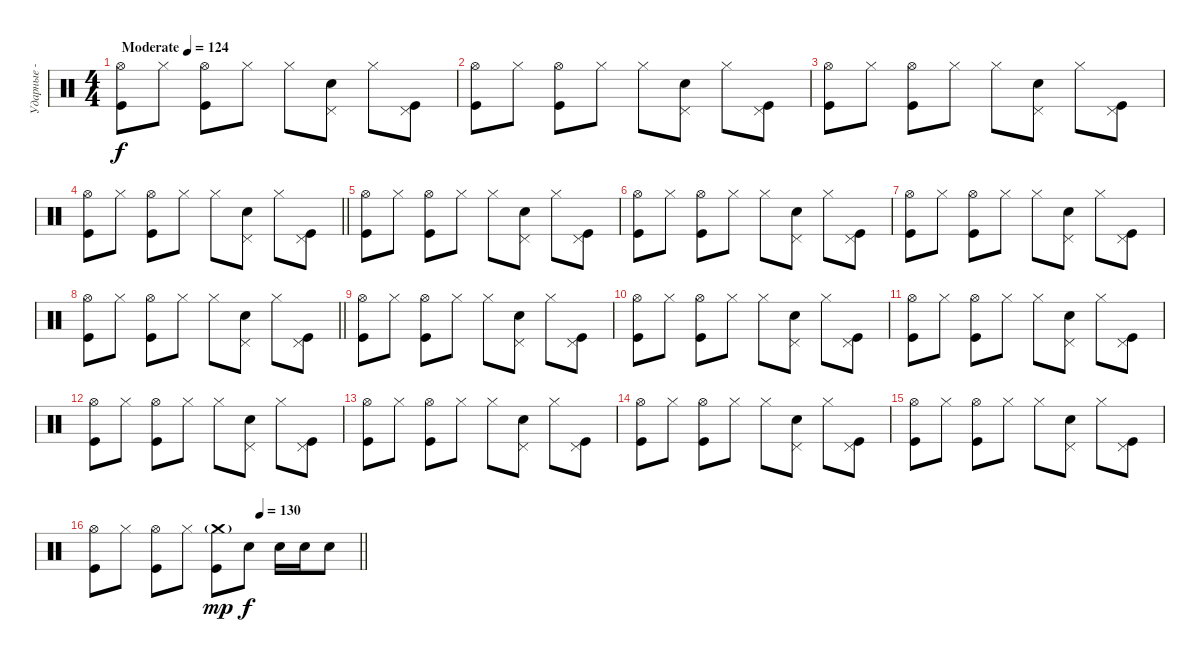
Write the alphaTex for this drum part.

\track ("Ударные - Джек Уайт" "Ударные - ") {instrument percussion}
\staff {score}
\articulation defaults
\ts (4 4)
\tempo (124 "Moderate")
\clef neutral
\ks c
("Hi-Hat (open)" "Kick (hit)").8{dy f} "Hi-Hat (closed)".8 ("Hi-Hat (open)" "Kick (hit)").8 "Hi-Hat (closed)".8 "Hi-Hat (closed)".8 ("Pedal Hi-Hat (hit)" "Electric Snare (hit)").8 "Hi-Hat (closed)".8 ("Pedal Hi-Hat (hit)" "Kick (hit)").8 |
("Hi-Hat (open)" "Kick (hit)").8 "Hi-Hat (closed)".8 ("Hi-Hat (open)" "Kick (hit)").8 "Hi-Hat (closed)".8 "Hi-Hat (closed)".8 ("Pedal Hi-Hat (hit)" "Electric Snare (hit)").8 "Hi-Hat (closed)".8 ("Pedal Hi-Hat (hit)" "Kick (hit)").8 |
("Hi-Hat (open)" "Kick (hit)").8 "Hi-Hat (closed)".8 ("Hi-Hat (open)" "Kick (hit)").8 "Hi-Hat (closed)".8 "Hi-Hat (closed)".8 ("Pedal Hi-Hat (hit)" "Electric Snare (hit)").8 "Hi-Hat (closed)".8 ("Pedal Hi-Hat (hit)" "Kick (hit)").8 |
\barLineRight lightlight
("Hi-Hat (open)" "Kick (hit)").8 "Hi-Hat (closed)".8 ("Hi-Hat (open)" "Kick (hit)").8 "Hi-Hat (closed)".8 "Hi-Hat (closed)".8 ("Pedal Hi-Hat (hit)" "Electric Snare (hit)").8 "Hi-Hat (closed)".8 ("Pedal Hi-Hat (hit)" "Kick (hit)").8 |
("Hi-Hat (open)" "Kick (hit)").8 "Hi-Hat (closed)".8 ("Hi-Hat (open)" "Kick (hit)").8 "Hi-Hat (closed)".8 "Hi-Hat (closed)".8 ("Pedal Hi-Hat (hit)" "Electric Snare (hit)").8 "Hi-Hat (closed)".8 ("Pedal Hi-Hat (hit)" "Kick (hit)").8 |
("Hi-Hat (open)" "Kick (hit)").8 "Hi-Hat (closed)".8 ("Hi-Hat (open)" "Kick (hit)").8 "Hi-Hat (closed)".8 "Hi-Hat (closed)".8 ("Pedal Hi-Hat (hit)" "Electric Snare (hit)").8 "Hi-Hat (closed)".8 ("Pedal Hi-Hat (hit)" "Kick (hit)").8 |
("Hi-Hat (open)" "Kick (hit)").8 "Hi-Hat (closed)".8 ("Hi-Hat (open)" "Kick (hit)").8 "Hi-Hat (closed)".8 "Hi-Hat (closed)".8 ("Pedal Hi-Hat (hit)" "Electric Snare (hit)").8 "Hi-Hat (closed)".8 ("Pedal Hi-Hat (hit)" "Kick (hit)").8 |
\barLineRight lightlight
("Hi-Hat (open)" "Kick (hit)").8 "Hi-Hat (closed)".8 ("Hi-Hat (open)" "Kick (hit)").8 "Hi-Hat (closed)".8 "Hi-Hat (closed)".8 ("Pedal Hi-Hat (hit)" "Electric Snare (hit)").8 "Hi-Hat (closed)".8 ("Pedal Hi-Hat (hit)" "Kick (hit)").8 |
("Hi-Hat (open)" "Kick (hit)").8 "Hi-Hat (closed)".8 ("Hi-Hat (open)" "Kick (hit)").8 "Hi-Hat (closed)".8 "Hi-Hat (closed)".8 ("Pedal Hi-Hat (hit)" "Electric Snare (hit)").8 "Hi-Hat (closed)".8 ("Pedal Hi-Hat (hit)" "Kick (hit)").8 |
("Hi-Hat (open)" "Kick (hit)").8 "Hi-Hat (closed)".8 ("Hi-Hat (open)" "Kick (hit)").8 "Hi-Hat (closed)".8 "Hi-Hat (closed)".8 ("Pedal Hi-Hat (hit)" "Electric Snare (hit)").8 "Hi-Hat (closed)".8 ("Pedal Hi-Hat (hit)" "Kick (hit)").8 |
("Hi-Hat (open)" "Kick (hit)").8 "Hi-Hat (closed)".8 ("Hi-Hat (open)" "Kick (hit)").8 "Hi-Hat (closed)".8 "Hi-Hat (closed)".8 ("Pedal Hi-Hat (hit)" "Electric Snare (hit)").8 "Hi-Hat (closed)".8 ("Pedal Hi-Hat (hit)" "Kick (hit)").8 |
("Hi-Hat (open)" "Kick (hit)").8 "Hi-Hat (closed)".8 ("Hi-Hat (open)" "Kick (hit)").8 "Hi-Hat (closed)".8 "Hi-Hat (closed)".8 ("Pedal Hi-Hat (hit)" "Electric Snare (hit)").8 "Hi-Hat (closed)".8 ("Pedal Hi-Hat (hit)" "Kick (hit)").8 |
("Hi-Hat (open)" "Kick (hit)").8 "Hi-Hat (closed)".8 ("Hi-Hat (open)" "Kick (hit)").8 "Hi-Hat (closed)".8 "Hi-Hat (closed)".8 ("Pedal Hi-Hat (hit)" "Electric Snare (hit)").8 "Hi-Hat (closed)".8 ("Pedal Hi-Hat (hit)" "Kick (hit)").8 |
("Hi-Hat (open)" "Kick (hit)").8 "Hi-Hat (closed)".8 ("Hi-Hat (open)" "Kick (hit)").8 "Hi-Hat (closed)".8 "Hi-Hat (closed)".8 ("Pedal Hi-Hat (hit)" "Electric Snare (hit)").8 "Hi-Hat (closed)".8 ("Pedal Hi-Hat (hit)" "Kick (hit)").8 |
("Hi-Hat (open)" "Kick (hit)").8 "Hi-Hat (closed)".8 ("Hi-Hat (open)" "Kick (hit)").8 "Hi-Hat (closed)".8 "Hi-Hat (closed)".8 ("Pedal Hi-Hat (hit)" "Electric Snare (hit)").8 "Hi-Hat (closed)".8 ("Pedal Hi-Hat (hit)" "Kick (hit)").8 |
\tempo (130 0.625)
\barLineRight lightlight
("Hi-Hat (open)" "Kick (hit)").8 "Hi-Hat (closed)".8 ("Hi-Hat (open)" "Kick (hit)").8 "Hi-Hat (closed)".8 ("Crash medium (hit)"{g} "Kick (hit)").8{dy mp} "Snare (hit) 2".8{dy f} "Snare (hit) 2".16 "Snare (hit) 2".16 "Snare (hit) 2".8
